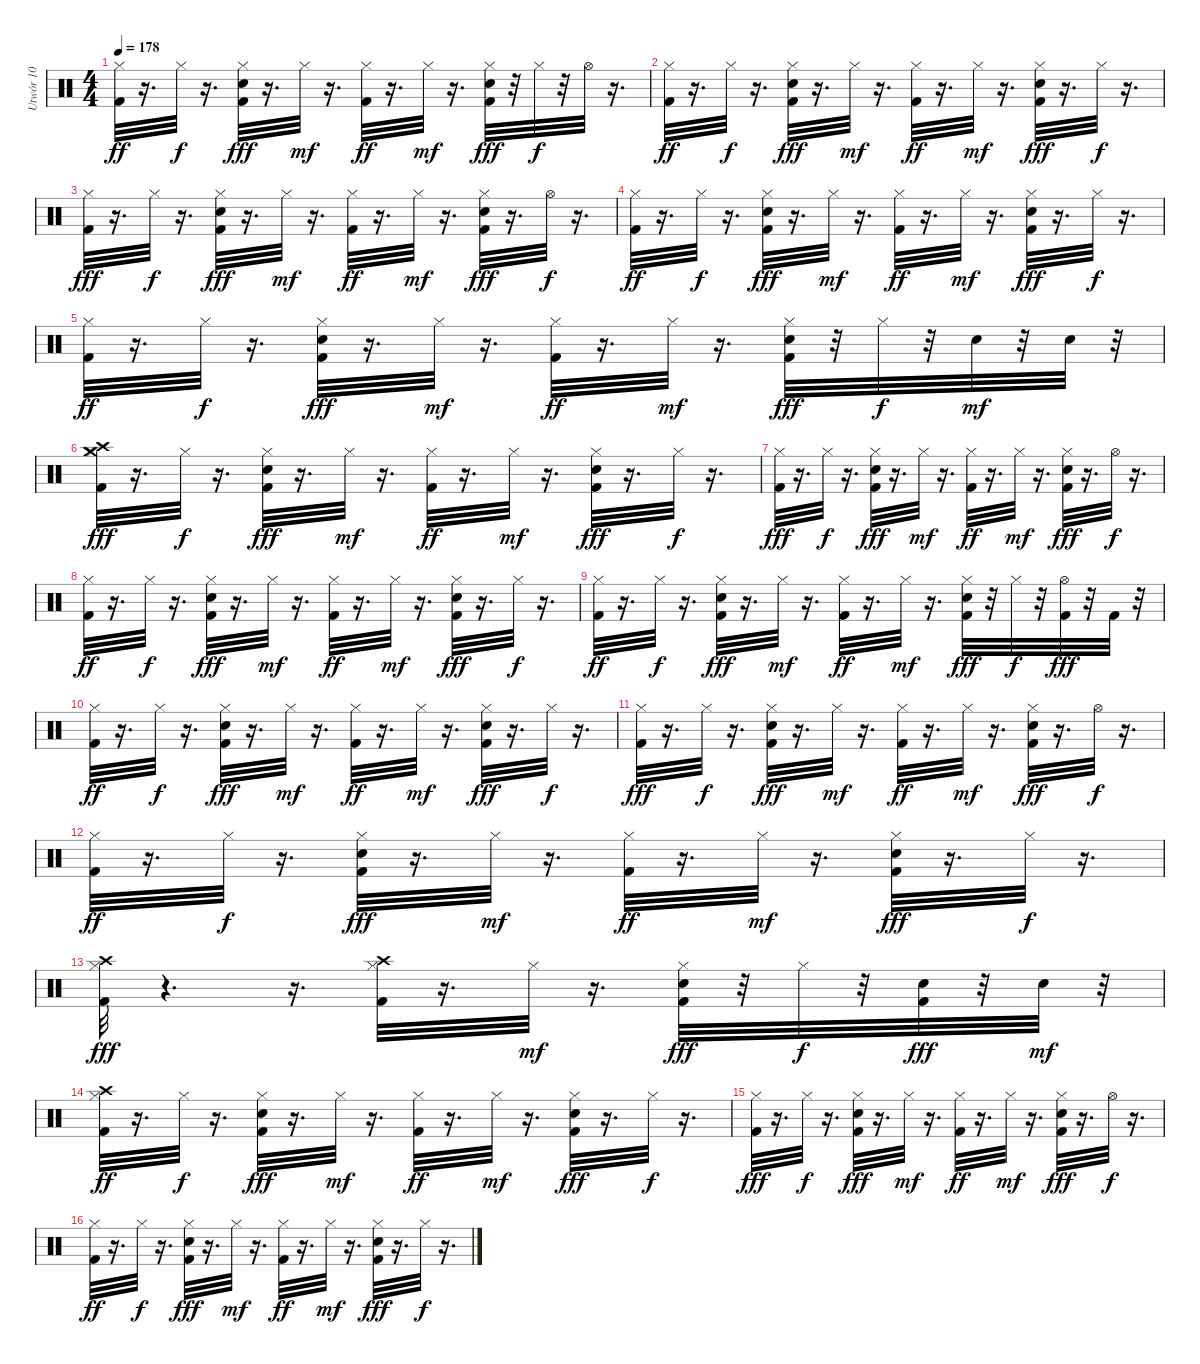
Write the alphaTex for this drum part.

\track ("Utwór 10" "Utwór 10") {instrument percussion}
\staff {score}
\articulation defaults
\ts (4 4)
\tempo 178
\clef neutral
\ks c
("Kick (hit) 2" "Hi-Hat (closed)").32{dy ff} r.16{d} "Hi-Hat (closed)".32{dy f} r.16{d} ("Kick (hit) 2" "Electric Snare (hit)" "Hi-Hat (closed)").32{dy fff} r.16{d} "Hi-Hat (closed)".32{dy mf} r.16{d} ("Kick (hit) 2" "Hi-Hat (closed)").32{dy ff} r.16{d} "Hi-Hat (closed)".32{dy mf} r.16{d} ("Kick (hit) 2" "Electric Snare (hit)" "Hi-Hat (closed)").32{dy fff} r.32 "Hi-Hat (closed)".32{dy f} r.32 "Hi-Hat (open)".32 r.16{d} |
("Kick (hit) 2" "Hi-Hat (closed)").32{dy ff} r.16{d} "Hi-Hat (closed)".32{dy f} r.16{d} ("Kick (hit) 2" "Electric Snare (hit)" "Hi-Hat (closed)").32{dy fff} r.16{d} "Hi-Hat (closed)".32{dy mf} r.16{d} ("Kick (hit) 2" "Hi-Hat (closed)").32{dy ff} r.16{d} "Hi-Hat (closed)".32{dy mf} r.16{d} ("Kick (hit) 2" "Electric Snare (hit)" "Hi-Hat (closed)").32{dy fff} r.16{d} "Hi-Hat (closed)".32{dy f} r.16{d} |
("Kick (hit) 2" "Hi-Hat (closed)").32{dy fff} r.16{d} "Hi-Hat (closed)".32{dy f} r.16{d} ("Kick (hit) 2" "Electric Snare (hit)" "Hi-Hat (closed)").32{dy fff} r.16{d} "Hi-Hat (closed)".32{dy mf} r.16{d} ("Kick (hit) 2" "Hi-Hat (closed)").32{dy ff} r.16{d} "Hi-Hat (closed)".32{dy mf} r.16{d} ("Kick (hit) 2" "Electric Snare (hit)" "Hi-Hat (closed)").32{dy fff} r.16{d} "Hi-Hat (open)".32{dy f} r.16{d} |
("Kick (hit) 2" "Hi-Hat (closed)").32{dy ff} r.16{d} "Hi-Hat (closed)".32{dy f} r.16{d} ("Kick (hit) 2" "Electric Snare (hit)" "Hi-Hat (closed)").32{dy fff} r.16{d} "Hi-Hat (closed)".32{dy mf} r.16{d} ("Kick (hit) 2" "Hi-Hat (closed)").32{dy ff} r.16{d} "Hi-Hat (closed)".32{dy mf} r.16{d} ("Kick (hit) 2" "Electric Snare (hit)" "Hi-Hat (closed)").32{dy fff} r.16{d} "Hi-Hat (closed)".32{dy f} r.16{d} |
("Kick (hit) 2" "Hi-Hat (closed)").32{dy ff} r.16{d} "Hi-Hat (closed)".32{dy f} r.16{d} ("Kick (hit) 2" "Electric Snare (hit)" "Hi-Hat (closed)").32{dy fff} r.16{d} "Hi-Hat (closed)".32{dy mf} r.16{d} ("Kick (hit) 2" "Hi-Hat (closed)").32{dy ff} r.16{d} "Hi-Hat (closed)".32{dy mf} r.16{d} ("Kick (hit) 2" "Electric Snare (hit)" "Hi-Hat (closed)").32{dy fff} r.32 "Hi-Hat (closed)".32{dy f} r.32 "Electric Snare (hit)".32{dy mf} r.32 "Electric Snare (hit)".32 r.32 |
("Kick (hit) 2" "Hi-Hat (closed)" "Crash high (hit)" "Crash medium (hit)").32{dy fff} r.16{d} "Hi-Hat (closed)".32{dy f} r.16{d} ("Kick (hit) 2" "Electric Snare (hit)" "Hi-Hat (closed)").32{dy fff} r.16{d} "Hi-Hat (closed)".32{dy mf} r.16{d} ("Kick (hit) 2" "Hi-Hat (closed)").32{dy ff} r.16{d} "Hi-Hat (closed)".32{dy mf} r.16{d} ("Kick (hit) 2" "Electric Snare (hit)" "Hi-Hat (closed)").32{dy fff} r.16{d} "Hi-Hat (closed)".32{dy f} r.16{d} |
("Kick (hit) 2" "Hi-Hat (closed)").32{dy fff} r.16{d} "Hi-Hat (closed)".32{dy f} r.16{d} ("Kick (hit) 2" "Electric Snare (hit)" "Hi-Hat (closed)").32{dy fff} r.16{d} "Hi-Hat (closed)".32{dy mf} r.16{d} ("Kick (hit) 2" "Hi-Hat (closed)").32{dy ff} r.16{d} "Hi-Hat (closed)".32{dy mf} r.16{d} ("Kick (hit) 2" "Electric Snare (hit)" "Hi-Hat (closed)").32{dy fff} r.16{d} "Hi-Hat (open)".32{dy f} r.16{d} |
("Kick (hit) 2" "Hi-Hat (closed)").32{dy ff} r.16{d} "Hi-Hat (closed)".32{dy f} r.16{d} ("Kick (hit) 2" "Electric Snare (hit)" "Hi-Hat (closed)").32{dy fff} r.16{d} "Hi-Hat (closed)".32{dy mf} r.16{d} ("Kick (hit) 2" "Hi-Hat (closed)").32{dy ff} r.16{d} "Hi-Hat (closed)".32{dy mf} r.16{d} ("Kick (hit) 2" "Electric Snare (hit)" "Hi-Hat (closed)").32{dy fff} r.16{d} "Hi-Hat (closed)".32{dy f} r.16{d} |
("Kick (hit) 2" "Hi-Hat (closed)").32{dy ff} r.16{d} "Hi-Hat (closed)".32{dy f} r.16{d} ("Kick (hit) 2" "Electric Snare (hit)" "Hi-Hat (closed)").32{dy fff} r.16{d} "Hi-Hat (closed)".32{dy mf} r.16{d} ("Kick (hit) 2" "Hi-Hat (closed)").32{dy ff} r.16{d} "Hi-Hat (closed)".32{dy mf} r.16{d} ("Kick (hit) 2" "Electric Snare (hit)" "Hi-Hat (closed)").32{dy fff} r.32 "Hi-Hat (closed)".32{dy f} r.32 ("Hi-Hat (open)" "Kick (hit) 2").32{dy fff} r.32 "Kick (hit) 2".32 r.32 |
("Kick (hit) 2" "Hi-Hat (closed)").32{dy ff} r.16{d} "Hi-Hat (closed)".32{dy f} r.16{d} ("Kick (hit) 2" "Electric Snare (hit)" "Hi-Hat (closed)").32{dy fff} r.16{d} "Hi-Hat (closed)".32{dy mf} r.16{d} ("Kick (hit) 2" "Hi-Hat (closed)").32{dy ff} r.16{d} "Hi-Hat (closed)".32{dy mf} r.16{d} ("Kick (hit) 2" "Electric Snare (hit)" "Hi-Hat (closed)").32{dy fff} r.16{d} "Hi-Hat (closed)".32{dy f} r.16{d} |
("Kick (hit) 2" "Hi-Hat (closed)").32{dy fff} r.16{d} "Hi-Hat (closed)".32{dy f} r.16{d} ("Kick (hit) 2" "Electric Snare (hit)" "Hi-Hat (closed)").32{dy fff} r.16{d} "Hi-Hat (closed)".32{dy mf} r.16{d} ("Kick (hit) 2" "Hi-Hat (closed)").32{dy ff} r.16{d} "Hi-Hat (closed)".32{dy mf} r.16{d} ("Kick (hit) 2" "Electric Snare (hit)" "Hi-Hat (closed)").32{dy fff} r.16{d} "Hi-Hat (open)".32{dy f} r.16{d} |
("Kick (hit) 2" "Hi-Hat (closed)").32{dy ff} r.16{d} "Hi-Hat (closed)".32{dy f} r.16{d} ("Kick (hit) 2" "Electric Snare (hit)" "Hi-Hat (closed)").32{dy fff} r.16{d} "Hi-Hat (closed)".32{dy mf} r.16{d} ("Kick (hit) 2" "Hi-Hat (closed)").32{dy ff} r.16{d} "Hi-Hat (closed)".32{dy mf} r.16{d} ("Kick (hit) 2" "Electric Snare (hit)" "Hi-Hat (closed)").32{dy fff} r.16{d} "Hi-Hat (closed)".32{dy f} r.16{d} |
("Kick (hit) 2" "Hi-Hat (closed)" "Crash high (hit)").32{dy fff} r.4{d} r.16{d} ("Kick (hit) 2" "Hi-Hat (closed)" "Crash high (hit)").32 r.16{d} "Hi-Hat (closed)".32{dy mf} r.16{d} ("Kick (hit) 2" "Electric Snare (hit)" "Hi-Hat (closed)").32{dy fff} r.32 "Hi-Hat (closed)".32{dy f} r.32 ("Electric Snare (hit)" "Kick (hit) 2").32{dy fff} r.32 "Electric Snare (hit)".32{dy mf} r.32 |
("Crash high (hit)" "Kick (hit) 2" "Hi-Hat (closed)").32{dy ff} r.16{d} "Hi-Hat (closed)".32{dy f} r.16{d} ("Kick (hit) 2" "Electric Snare (hit)" "Hi-Hat (closed)").32{dy fff} r.16{d} "Hi-Hat (closed)".32{dy mf} r.16{d} ("Kick (hit) 2" "Hi-Hat (closed)").32{dy ff} r.16{d} "Hi-Hat (closed)".32{dy mf} r.16{d} ("Kick (hit) 2" "Electric Snare (hit)" "Hi-Hat (closed)").32{dy fff} r.16{d} "Hi-Hat (closed)".32{dy f} r.16{d} |
("Kick (hit) 2" "Hi-Hat (closed)").32{dy fff} r.16{d} "Hi-Hat (closed)".32{dy f} r.16{d} ("Kick (hit) 2" "Electric Snare (hit)" "Hi-Hat (closed)").32{dy fff} r.16{d} "Hi-Hat (closed)".32{dy mf} r.16{d} ("Kick (hit) 2" "Hi-Hat (closed)").32{dy ff} r.16{d} "Hi-Hat (closed)".32{dy mf} r.16{d} ("Kick (hit) 2" "Electric Snare (hit)" "Hi-Hat (closed)").32{dy fff} r.16{d} "Hi-Hat (open)".32{dy f} r.16{d} |
("Kick (hit) 2" "Hi-Hat (closed)").32{dy ff} r.16{d} "Hi-Hat (closed)".32{dy f} r.16{d} ("Kick (hit) 2" "Electric Snare (hit)" "Hi-Hat (closed)").32{dy fff} r.16{d} "Hi-Hat (closed)".32{dy mf} r.16{d} ("Kick (hit) 2" "Hi-Hat (closed)").32{dy ff} r.16{d} "Hi-Hat (closed)".32{dy mf} r.16{d} ("Kick (hit) 2" "Electric Snare (hit)" "Hi-Hat (closed)").32{dy fff} r.16{d} "Hi-Hat (closed)".32{dy f} r.16{d}
